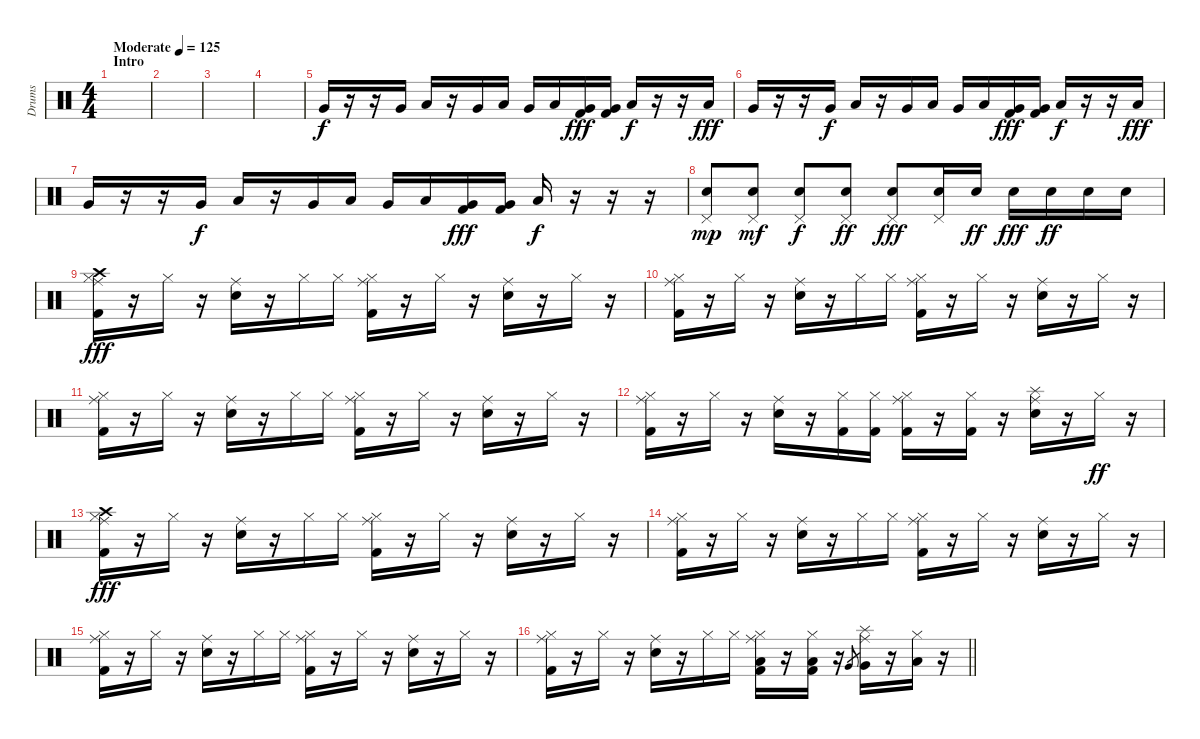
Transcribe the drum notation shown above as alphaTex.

\track ("Drums " "Drums ") {instrument percussion}
\staff {score}
\articulation defaults
\ts (4 4)
\section ("" "Intro")
\tempo (125 "Moderate")
\clef neutral
\ks c
|
|
|
|
"Very Low Tom (hit)".16 r.16 r.16 "Very Low Tom (hit)".16{dy f} "Low Floor Tom (hit)".16 r.16 "Very Low Tom (hit)".16 "Low Floor Tom (hit)".16 "Very Low Tom (hit)".16 "Low Floor Tom (hit)".16 ("Very Low Tom (hit)" "Kick (hit) 2").16{dy fff} ("Very Low Tom (hit)" "Kick (hit) 2").16 "Low Floor Tom (hit)".16{dy f} r.16 r.16 "Low Floor Tom (hit)".16{dy fff} |
"Very Low Tom (hit)".16 r.16 r.16 "Very Low Tom (hit)".16{dy f} "Low Floor Tom (hit)".16 r.16 "Very Low Tom (hit)".16 "Low Floor Tom (hit)".16 "Very Low Tom (hit)".16 "Low Floor Tom (hit)".16 ("Very Low Tom (hit)" "Kick (hit) 2").16{dy fff} ("Very Low Tom (hit)" "Kick (hit) 2").16 "Low Floor Tom (hit)".16{dy f} r.16 r.16 "Low Floor Tom (hit)".16{dy fff} |
"Very Low Tom (hit)".16 r.16 r.16 "Very Low Tom (hit)".16{dy f} "Low Floor Tom (hit)".16 r.16 "Very Low Tom (hit)".16 "Low Floor Tom (hit)".16 "Very Low Tom (hit)".16 "Low Floor Tom (hit)".16 ("Very Low Tom (hit)" "Kick (hit) 2").16{dy fff} ("Very Low Tom (hit)" "Kick (hit) 2").16 "Low Floor Tom (hit)".16{dy f} r.16 r.16 r.16 |
("Pedal Hi-Hat (hit)" "Electric Snare (hit)").8{dy mp} ("Pedal Hi-Hat (hit)" "Electric Snare (hit)").8{dy mf} ("Pedal Hi-Hat (hit)" "Electric Snare (hit)").8{dy f} ("Pedal Hi-Hat (hit)" "Electric Snare (hit)").8{dy ff} ("Pedal Hi-Hat (hit)" "Electric Snare (hit)").8{dy fff} ("Pedal Hi-Hat (hit)" "Electric Snare (hit)").16 "Electric Snare (hit)".16{dy ff} "Electric Snare (hit)".16{dy fff} "Electric Snare (hit)".16{dy ff} "Electric Snare (hit)".16 "Electric Snare (hit)".16 |
("Ride (middle)" "Hi-Hat (closed)" "Crash high (hit)" "Kick (hit) 2").16{dy fff} r.16 "Hi-Hat (closed)".16 r.16 ("Ride (middle)" "Electric Snare (hit)").16 r.16 "Hi-Hat (closed)".16 "Hi-Hat (closed)".16 ("Ride (middle)" "Hi-Hat (closed)" "Kick (hit) 2").16 r.16 "Hi-Hat (closed)".16 r.16 ("Ride (middle)" "Electric Snare (hit)").16 r.16 "Hi-Hat (closed)".16 r.16 |
("Ride (middle)" "Hi-Hat (closed)" "Kick (hit) 2").16 r.16 "Hi-Hat (closed)".16 r.16 ("Ride (middle)" "Electric Snare (hit)").16 r.16 "Hi-Hat (closed)".16 "Hi-Hat (closed)".16 ("Ride (middle)" "Hi-Hat (closed)" "Kick (hit) 2").16 r.16 "Hi-Hat (closed)".16 r.16 ("Ride (middle)" "Electric Snare (hit)").16 r.16 "Hi-Hat (closed)".16 r.16 |
("Ride (middle)" "Hi-Hat (closed)" "Kick (hit) 2").16 r.16 "Hi-Hat (closed)".16 r.16 ("Ride (middle)" "Electric Snare (hit)").16 r.16 "Hi-Hat (closed)".16 "Hi-Hat (closed)".16 ("Ride (middle)" "Hi-Hat (closed)" "Kick (hit) 2").16 r.16 "Hi-Hat (closed)".16 r.16 ("Ride (middle)" "Electric Snare (hit)").16 r.16 "Hi-Hat (closed)".16 r.16 |
("Ride (middle)" "Hi-Hat (closed)" "Kick (hit) 2").16 r.16 "Hi-Hat (closed)".16 r.16 ("Ride (middle)" "Electric Snare (hit)").16 r.16 ("Hi-Hat (closed)" "Kick (hit) 2").16 ("Hi-Hat (closed)" "Kick (hit) 2").16 ("Ride (middle)" "Hi-Hat (closed)" "Kick (hit) 2").16 r.16 ("Hi-Hat (closed)" "Kick (hit) 2").16 r.16 ("Ride (middle)" "Splash (hit)" "Electric Snare (hit)").16 r.16 "Hi-Hat (closed)".16{dy ff} r.16 |
("Ride (middle)" "Hi-Hat (closed)" "Crash high (hit)" "Kick (hit) 2").16{dy fff} r.16 "Hi-Hat (closed)".16 r.16 ("Ride (middle)" "Electric Snare (hit)").16 r.16 "Hi-Hat (closed)".16 "Hi-Hat (closed)".16 ("Ride (middle)" "Hi-Hat (closed)" "Kick (hit) 2").16 r.16 "Hi-Hat (closed)".16 r.16 ("Ride (middle)" "Electric Snare (hit)").16 r.16 "Hi-Hat (closed)".16 r.16 |
("Ride (middle)" "Hi-Hat (closed)" "Kick (hit) 2").16 r.16 "Hi-Hat (closed)".16 r.16 ("Ride (middle)" "Electric Snare (hit)").16 r.16 "Hi-Hat (closed)".16 "Hi-Hat (closed)".16 ("Ride (middle)" "Hi-Hat (closed)" "Kick (hit) 2").16 r.16 "Hi-Hat (closed)".16 r.16 ("Ride (middle)" "Electric Snare (hit)").16 r.16 "Hi-Hat (closed)".16 r.16 |
("Ride (middle)" "Hi-Hat (closed)" "Kick (hit) 2").16 r.16 "Hi-Hat (closed)".16 r.16 ("Ride (middle)" "Electric Snare (hit)").16 r.16 "Hi-Hat (closed)".16 "Hi-Hat (closed)".16 ("Ride (middle)" "Hi-Hat (closed)" "Kick (hit) 2").16 r.16 "Hi-Hat (closed)".16 r.16 ("Ride (middle)" "Electric Snare (hit)").16 r.16 "Hi-Hat (closed)".16 r.16 |
\barLineRight lightlight
("Ride (middle)" "Hi-Hat (closed)" "Kick (hit) 2").16 r.16 "Hi-Hat (closed)".16 r.16 ("Ride (middle)" "Electric Snare (hit)").16 r.16 "Hi-Hat (closed)".16 "Hi-Hat (closed)".16 ("Ride (middle)" "Hi-Hat (closed)" "Low Floor Tom (hit)" "Kick (hit) 2").16 r.16 ("Hi-Hat (closed)" "Low Floor Tom (hit)" "Kick (hit) 2").16 r.16 "Very Low Tom (hit)".8{gr} ("Ride (middle)" "Splash (hit)" "Very Low Tom (hit)").16 r.16 ("Hi-Hat (closed)" "Low Floor Tom (hit)").16 r.16
